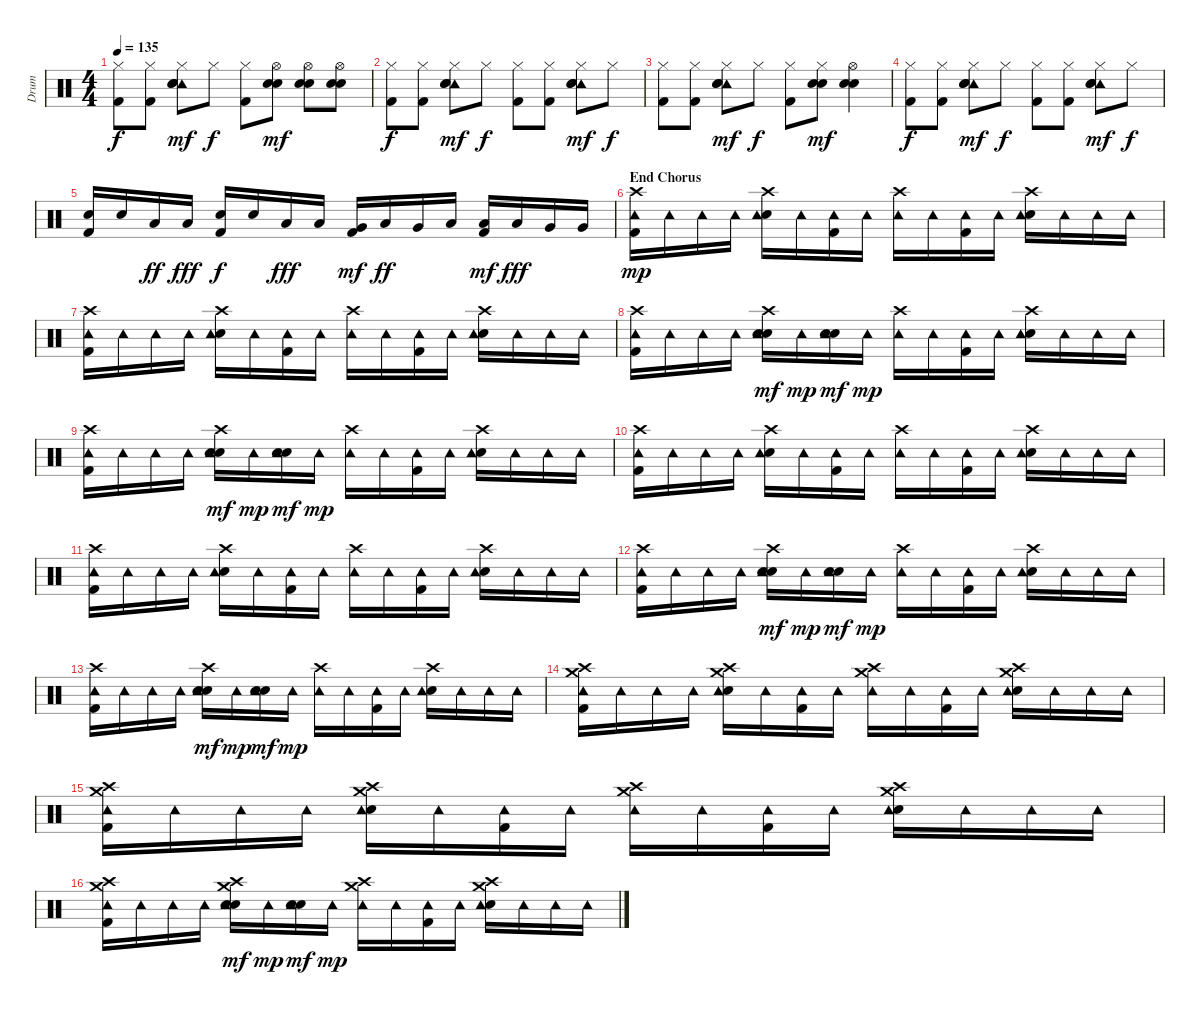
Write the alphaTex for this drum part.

\track ("Drum" "Drum") {instrument percussion}
\staff {score}
\articulation defaults
\ts (4 4)
\tempo 135
\clef neutral
\ks c
("Hi-Hat (closed)" "Kick (hit) 2").8{dy f} ("Hi-Hat (closed)" "Kick (hit) 2").8 ("Hi-Hat (closed)" "Tambourine (hit)" "Electric Snare (hit)" "Hand Clap (hit)").8{dy mf} "Hi-Hat (closed)".8{dy f} ("Hi-Hat (closed)" "Kick (hit) 2").8 ("Hi-Hat (open)" "Electric Snare (hit)" "Hand Clap (hit)").8{dy mf} ("Hi-Hat (open)" "Electric Snare (hit)" "Hand Clap (hit)").8 ("Hi-Hat (open)" "Electric Snare (hit)" "Hand Clap (hit)").8 |
("Hi-Hat (closed)" "Kick (hit) 2").8{dy f} ("Hi-Hat (closed)" "Kick (hit) 2").8 ("Hi-Hat (closed)" "Tambourine (hit)" "Electric Snare (hit)" "Hand Clap (hit)").8{dy mf} "Hi-Hat (closed)".8{dy f} ("Hi-Hat (closed)" "Kick (hit) 2").8 ("Hi-Hat (closed)" "Kick (hit) 2").8 ("Hi-Hat (closed)" "Tambourine (hit)" "Electric Snare (hit)" "Hand Clap (hit)").8{dy mf} "Hi-Hat (closed)".8{dy f} |
("Hi-Hat (closed)" "Kick (hit) 2").8 ("Hi-Hat (closed)" "Kick (hit) 2").8 ("Hi-Hat (closed)" "Tambourine (hit)" "Electric Snare (hit)" "Hand Clap (hit)").8{dy mf} "Hi-Hat (closed)".8{dy f} ("Hi-Hat (closed)" "Kick (hit) 2").8 ("Hi-Hat (closed)" "Electric Snare (hit)" "Hand Clap (hit)").8{dy mf} ("Hi-Hat (open)" "Electric Snare (hit)" "Hand Clap (hit)").4 |
("Hi-Hat (closed)" "Kick (hit) 2").8{dy f} ("Hi-Hat (closed)" "Kick (hit) 2").8 ("Hi-Hat (closed)" "Tambourine (hit)" "Electric Snare (hit)" "Hand Clap (hit)").8{dy mf} "Hi-Hat (closed)".8{dy f} ("Hi-Hat (closed)" "Kick (hit) 2").8 ("Hi-Hat (closed)" "Kick (hit) 2").8 ("Hi-Hat (closed)" "Tambourine (hit)" "Electric Snare (hit)" "Hand Clap (hit)").8{dy mf} "Hi-Hat (closed)".8{dy f} |
("Electric Snare (hit)" "Kick (hit) 2").16 "Electric Snare (hit)".16 "Low Tom (hit)".16{dy ff} "Low Tom (hit)".16{dy fff} ("Electric Snare (hit)" "Kick (hit) 2").16{dy f} "Electric Snare (hit)".16 "Low Tom (hit)".16{dy fff} "Low Tom (hit)".16 ("Very Low Tom (hit)" "Kick (hit) 2").16{dy mf} "Low Tom (hit)".16{dy ff} "Very Low Tom (hit)".16 "Low Tom (hit)".16 ("Low Tom (hit)" "Kick (hit) 2").16{dy mf} "Low Tom (hit)".16{dy fff} "Very Low Tom (hit)".16 "Very Low Tom (hit)".16 |
\section ("" "End Chorus")
("Crash high (hit)" "Tambourine (hit)" "Kick (hit) 2").16{dy mp} "Tambourine (hit)".16 "Tambourine (hit)".16 "Tambourine (hit)".16 ("Crash high (hit)" "Electric Snare (hit)" "Tambourine (hit)").16 "Tambourine (hit)".16 ("Tambourine (hit)" "Kick (hit) 2").16 "Tambourine (hit)".16 ("Crash high (hit)" "Tambourine (hit)").16 "Tambourine (hit)".16 ("Tambourine (hit)" "Kick (hit) 2").16 "Tambourine (hit)".16 ("Crash high (hit)" "Electric Snare (hit)" "Tambourine (hit)").16 "Tambourine (hit)".16 "Tambourine (hit)".16 "Tambourine (hit)".16 |
("Crash high (hit)" "Tambourine (hit)" "Kick (hit) 2").16 "Tambourine (hit)".16 "Tambourine (hit)".16 "Tambourine (hit)".16 ("Crash high (hit)" "Electric Snare (hit)" "Tambourine (hit)").16 "Tambourine (hit)".16 ("Tambourine (hit)" "Kick (hit) 2").16 "Tambourine (hit)".16 ("Crash high (hit)" "Tambourine (hit)").16 "Tambourine (hit)".16 ("Tambourine (hit)" "Kick (hit) 2").16 "Tambourine (hit)".16 ("Crash high (hit)" "Electric Snare (hit)" "Tambourine (hit)").16 "Tambourine (hit)".16 "Tambourine (hit)".16 "Tambourine (hit)".16 |
("Crash high (hit)" "Tambourine (hit)" "Kick (hit) 2").16 "Tambourine (hit)".16 "Tambourine (hit)".16 "Tambourine (hit)".16 ("Crash high (hit)" "Electric Snare (hit)" "Tambourine (hit)" "Hand Clap (hit)").16{dy mf} "Tambourine (hit)".16{dy mp} ("Electric Snare (hit)" "Tambourine (hit)" "Hand Clap (hit)").16{dy mf} "Tambourine (hit)".16{dy mp} ("Crash high (hit)" "Tambourine (hit)").16 "Tambourine (hit)".16 ("Tambourine (hit)" "Kick (hit) 2").16 "Tambourine (hit)".16 ("Crash high (hit)" "Electric Snare (hit)" "Tambourine (hit)").16 "Tambourine (hit)".16 "Tambourine (hit)".16 "Tambourine (hit)".16 |
("Crash high (hit)" "Tambourine (hit)" "Kick (hit) 2").16 "Tambourine (hit)".16 "Tambourine (hit)".16 "Tambourine (hit)".16 ("Crash high (hit)" "Electric Snare (hit)" "Tambourine (hit)" "Hand Clap (hit)").16{dy mf} "Tambourine (hit)".16{dy mp} ("Electric Snare (hit)" "Tambourine (hit)" "Hand Clap (hit)").16{dy mf} "Tambourine (hit)".16{dy mp} ("Crash high (hit)" "Tambourine (hit)").16 "Tambourine (hit)".16 ("Tambourine (hit)" "Kick (hit) 2").16 "Tambourine (hit)".16 ("Crash high (hit)" "Electric Snare (hit)" "Tambourine (hit)").16 "Tambourine (hit)".16 "Tambourine (hit)".16 "Tambourine (hit)".16 |
("Crash high (hit)" "Tambourine (hit)" "Kick (hit) 2").16 "Tambourine (hit)".16 "Tambourine (hit)".16 "Tambourine (hit)".16 ("Crash high (hit)" "Electric Snare (hit)" "Tambourine (hit)").16 "Tambourine (hit)".16 ("Tambourine (hit)" "Kick (hit) 2").16 "Tambourine (hit)".16 ("Crash high (hit)" "Tambourine (hit)").16 "Tambourine (hit)".16 ("Tambourine (hit)" "Kick (hit) 2").16 "Tambourine (hit)".16 ("Crash high (hit)" "Electric Snare (hit)" "Tambourine (hit)").16 "Tambourine (hit)".16 "Tambourine (hit)".16 "Tambourine (hit)".16 |
("Crash high (hit)" "Tambourine (hit)" "Kick (hit) 2").16 "Tambourine (hit)".16 "Tambourine (hit)".16 "Tambourine (hit)".16 ("Crash high (hit)" "Electric Snare (hit)" "Tambourine (hit)").16 "Tambourine (hit)".16 ("Tambourine (hit)" "Kick (hit) 2").16 "Tambourine (hit)".16 ("Crash high (hit)" "Tambourine (hit)").16 "Tambourine (hit)".16 ("Tambourine (hit)" "Kick (hit) 2").16 "Tambourine (hit)".16 ("Crash high (hit)" "Electric Snare (hit)" "Tambourine (hit)").16 "Tambourine (hit)".16 "Tambourine (hit)".16 "Tambourine (hit)".16 |
("Crash high (hit)" "Tambourine (hit)" "Kick (hit) 2").16 "Tambourine (hit)".16 "Tambourine (hit)".16 "Tambourine (hit)".16 ("Crash high (hit)" "Electric Snare (hit)" "Tambourine (hit)" "Hand Clap (hit)").16{dy mf} "Tambourine (hit)".16{dy mp} ("Electric Snare (hit)" "Tambourine (hit)" "Hand Clap (hit)").16{dy mf} "Tambourine (hit)".16{dy mp} ("Crash high (hit)" "Tambourine (hit)").16 "Tambourine (hit)".16 ("Tambourine (hit)" "Kick (hit) 2").16 "Tambourine (hit)".16 ("Crash high (hit)" "Electric Snare (hit)" "Tambourine (hit)").16 "Tambourine (hit)".16 "Tambourine (hit)".16 "Tambourine (hit)".16 |
("Crash high (hit)" "Tambourine (hit)" "Kick (hit) 2").16 "Tambourine (hit)".16 "Tambourine (hit)".16 "Tambourine (hit)".16 ("Crash high (hit)" "Electric Snare (hit)" "Tambourine (hit)" "Hand Clap (hit)").16{dy mf} "Tambourine (hit)".16{dy mp} ("Electric Snare (hit)" "Tambourine (hit)" "Hand Clap (hit)").16{dy mf} "Tambourine (hit)".16{dy mp} ("Crash high (hit)" "Tambourine (hit)").16 "Tambourine (hit)".16 ("Tambourine (hit)" "Kick (hit) 2").16 "Tambourine (hit)".16 ("Crash high (hit)" "Electric Snare (hit)" "Tambourine (hit)").16 "Tambourine (hit)".16 "Tambourine (hit)".16 "Tambourine (hit)".16 |
("Crash high (hit)" "Crash medium (hit)" "Tambourine (hit)" "Kick (hit) 2").16 "Tambourine (hit)".16 "Tambourine (hit)".16 "Tambourine (hit)".16 ("Crash high (hit)" "Crash medium (hit)" "Electric Snare (hit)" "Tambourine (hit)").16 "Tambourine (hit)".16 ("Tambourine (hit)" "Kick (hit) 2").16 "Tambourine (hit)".16 ("Crash high (hit)" "Crash medium (hit)" "Tambourine (hit)").16 "Tambourine (hit)".16 ("Tambourine (hit)" "Kick (hit) 2").16 "Tambourine (hit)".16 ("Crash high (hit)" "Crash medium (hit)" "Electric Snare (hit)" "Tambourine (hit)").16 "Tambourine (hit)".16 "Tambourine (hit)".16 "Tambourine (hit)".16 |
("Crash high (hit)" "Crash medium (hit)" "Tambourine (hit)" "Kick (hit) 2").16 "Tambourine (hit)".16 "Tambourine (hit)".16 "Tambourine (hit)".16 ("Crash high (hit)" "Crash medium (hit)" "Electric Snare (hit)" "Tambourine (hit)").16 "Tambourine (hit)".16 ("Tambourine (hit)" "Kick (hit) 2").16 "Tambourine (hit)".16 ("Crash high (hit)" "Crash medium (hit)" "Tambourine (hit)").16 "Tambourine (hit)".16 ("Tambourine (hit)" "Kick (hit) 2").16 "Tambourine (hit)".16 ("Crash high (hit)" "Crash medium (hit)" "Electric Snare (hit)" "Tambourine (hit)").16 "Tambourine (hit)".16 "Tambourine (hit)".16 "Tambourine (hit)".16 |
("Crash high (hit)" "Crash medium (hit)" "Tambourine (hit)" "Kick (hit) 2").16 "Tambourine (hit)".16 "Tambourine (hit)".16 "Tambourine (hit)".16 ("Crash high (hit)" "Crash medium (hit)" "Electric Snare (hit)" "Tambourine (hit)" "Hand Clap (hit)").16{dy mf} "Tambourine (hit)".16{dy mp} ("Electric Snare (hit)" "Tambourine (hit)" "Hand Clap (hit)").16{dy mf} "Tambourine (hit)".16{dy mp} ("Crash high (hit)" "Crash medium (hit)" "Tambourine (hit)").16 "Tambourine (hit)".16 ("Tambourine (hit)" "Kick (hit) 2").16 "Tambourine (hit)".16 ("Crash high (hit)" "Crash medium (hit)" "Electric Snare (hit)" "Tambourine (hit)").16 "Tambourine (hit)".16 "Tambourine (hit)".16 "Tambourine (hit)".16
